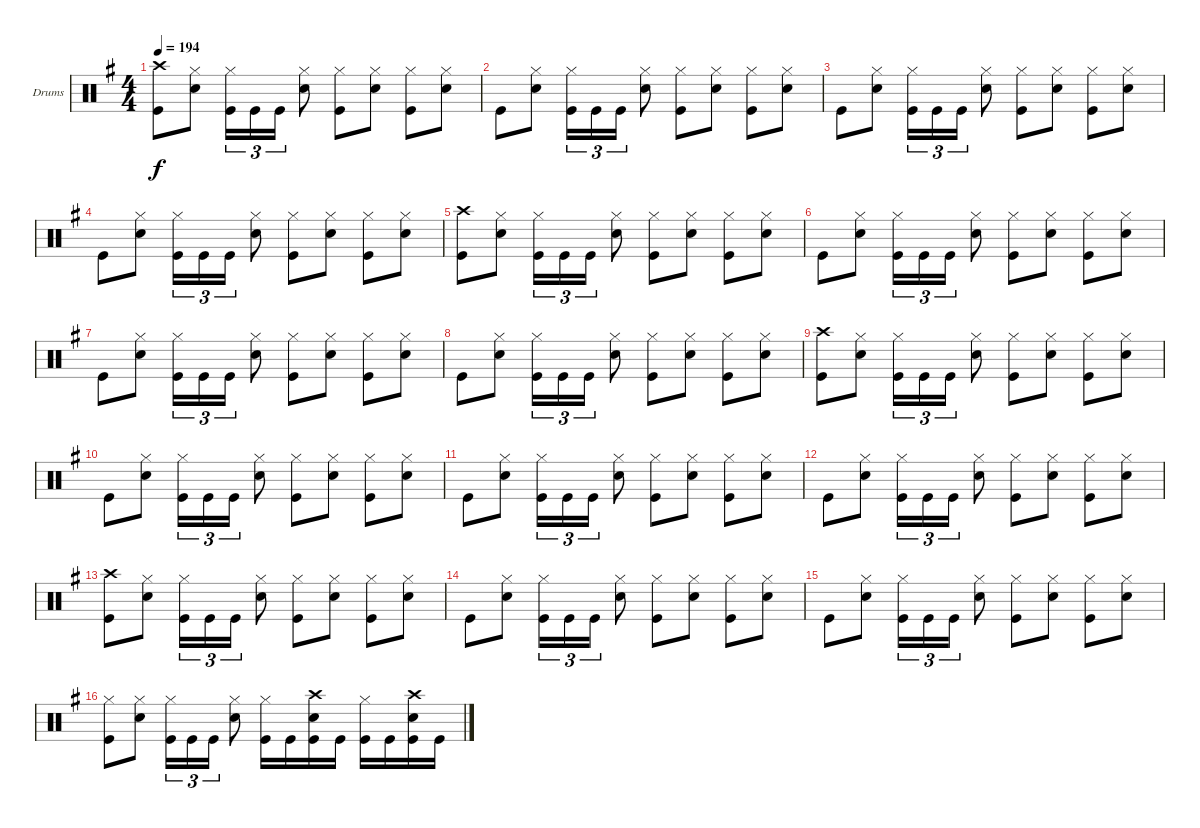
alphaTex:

\bracketExtendMode groupsimilarinstruments
\firstSystemTrackNameOrientation horizontal
\otherSystemsTrackNameOrientation horizontal
\track ("Drumkit" "Drums") {instrument percussion}
\staff {score}
\articulation defaults
\ts (4 4)
\tempo 194
\clef neutral
\scale
1.07314
\ks g
("Crash high (hit)" "Kick (hit)").8{dy f} ("Hi-Hat (closed)" "Snare (hit) 2").8 ("Hi-Hat (closed)" "Kick (hit)").16{tu (3 2)} "Kick (hit)".16{tu (3 2)} "Kick (hit)".16{tu (3 2)} ("Hi-Hat (closed)" "Snare (hit) 2").8 ("Hi-Hat (closed)" "Kick (hit)").8 ("Hi-Hat (closed)" "Snare (hit) 2").8 ("Hi-Hat (closed)" "Kick (hit)").8 ("Hi-Hat (closed)" "Snare (hit) 2").8 |
\scale
0.92686 "Kick (hit)".8 ("Hi-Hat (closed)" "Snare (hit) 2").8 ("Hi-Hat (closed)" "Kick (hit)").16{tu (3 2)} "Kick (hit)".16{tu (3 2)} "Kick (hit)".16{tu (3 2)} ("Hi-Hat (closed)" "Snare (hit) 2").8 ("Hi-Hat (closed)" "Kick (hit)").8 ("Hi-Hat (closed)" "Snare (hit) 2").8 ("Hi-Hat (closed)" "Kick (hit)").8 ("Hi-Hat (closed)" "Snare (hit) 2").8 |
\scale
1.04288 "Kick (hit)".8 ("Hi-Hat (closed)" "Snare (hit) 2").8 ("Hi-Hat (closed)" "Kick (hit)").16{tu (3 2)} "Kick (hit)".16{tu (3 2)} "Kick (hit)".16{tu (3 2)} ("Hi-Hat (closed)" "Snare (hit) 2").8 ("Hi-Hat (closed)" "Kick (hit)").8 ("Hi-Hat (closed)" "Snare (hit) 2").8 ("Hi-Hat (closed)" "Kick (hit)").8 ("Hi-Hat (closed)" "Snare (hit) 2").8 |
\scale
0.957125 "Kick (hit)".8 ("Hi-Hat (closed)" "Snare (hit) 2").8 ("Hi-Hat (closed)" "Kick (hit)").16{tu (3 2)} "Kick (hit)".16{tu (3 2)} "Kick (hit)".16{tu (3 2)} ("Hi-Hat (closed)" "Snare (hit) 2").8 ("Hi-Hat (closed)" "Kick (hit)").8 ("Hi-Hat (closed)" "Snare (hit) 2").8 ("Hi-Hat (closed)" "Kick (hit)").8 ("Hi-Hat (closed)" "Snare (hit) 2").8 |
\scale
1.04288 ("Crash high (hit)" "Kick (hit)").8 ("Hi-Hat (closed)" "Snare (hit) 2").8 ("Hi-Hat (closed)" "Kick (hit)").16{tu (3 2)} "Kick (hit)".16{tu (3 2)} "Kick (hit)".16{tu (3 2)} ("Hi-Hat (closed)" "Snare (hit) 2").8 ("Hi-Hat (closed)" "Kick (hit)").8 ("Hi-Hat (closed)" "Snare (hit) 2").8 ("Hi-Hat (closed)" "Kick (hit)").8 ("Hi-Hat (closed)" "Snare (hit) 2").8 |
\scale
0.957125 "Kick (hit)".8 ("Hi-Hat (closed)" "Snare (hit) 2").8 ("Hi-Hat (closed)" "Kick (hit)").16{tu (3 2)} "Kick (hit)".16{tu (3 2)} "Kick (hit)".16{tu (3 2)} ("Hi-Hat (closed)" "Snare (hit) 2").8 ("Hi-Hat (closed)" "Kick (hit)").8 ("Hi-Hat (closed)" "Snare (hit) 2").8 ("Hi-Hat (closed)" "Kick (hit)").8 ("Hi-Hat (closed)" "Snare (hit) 2").8 |
\scale
1.04288 "Kick (hit)".8 ("Hi-Hat (closed)" "Snare (hit) 2").8 ("Hi-Hat (closed)" "Kick (hit)").16{tu (3 2)} "Kick (hit)".16{tu (3 2)} "Kick (hit)".16{tu (3 2)} ("Hi-Hat (closed)" "Snare (hit) 2").8 ("Hi-Hat (closed)" "Kick (hit)").8 ("Hi-Hat (closed)" "Snare (hit) 2").8 ("Hi-Hat (closed)" "Kick (hit)").8 ("Hi-Hat (closed)" "Snare (hit) 2").8 |
\scale
0.957125 "Kick (hit)".8 ("Hi-Hat (closed)" "Snare (hit) 2").8 ("Hi-Hat (closed)" "Kick (hit)").16{tu (3 2)} "Kick (hit)".16{tu (3 2)} "Kick (hit)".16{tu (3 2)} ("Hi-Hat (closed)" "Snare (hit) 2").8 ("Hi-Hat (closed)" "Kick (hit)").8 ("Hi-Hat (closed)" "Snare (hit) 2").8 ("Hi-Hat (closed)" "Kick (hit)").8 ("Hi-Hat (closed)" "Snare (hit) 2").8 |
\scale
1.04288 ("Crash high (hit)" "Kick (hit)").8 ("Hi-Hat (closed)" "Snare (hit) 2").8 ("Hi-Hat (closed)" "Kick (hit)").16{tu (3 2)} "Kick (hit)".16{tu (3 2)} "Kick (hit)".16{tu (3 2)} ("Hi-Hat (closed)" "Snare (hit) 2").8 ("Hi-Hat (closed)" "Kick (hit)").8 ("Hi-Hat (closed)" "Snare (hit) 2").8 ("Hi-Hat (closed)" "Kick (hit)").8 ("Hi-Hat (closed)" "Snare (hit) 2").8 |
\scale
0.957125 "Kick (hit)".8 ("Hi-Hat (closed)" "Snare (hit) 2").8 ("Hi-Hat (closed)" "Kick (hit)").16{tu (3 2)} "Kick (hit)".16{tu (3 2)} "Kick (hit)".16{tu (3 2)} ("Hi-Hat (closed)" "Snare (hit) 2").8 ("Hi-Hat (closed)" "Kick (hit)").8 ("Hi-Hat (closed)" "Snare (hit) 2").8 ("Hi-Hat (closed)" "Kick (hit)").8 ("Hi-Hat (closed)" "Snare (hit) 2").8 |
\scale
1.04288 "Kick (hit)".8 ("Hi-Hat (closed)" "Snare (hit) 2").8 ("Hi-Hat (closed)" "Kick (hit)").16{tu (3 2)} "Kick (hit)".16{tu (3 2)} "Kick (hit)".16{tu (3 2)} ("Hi-Hat (closed)" "Snare (hit) 2").8 ("Hi-Hat (closed)" "Kick (hit)").8 ("Hi-Hat (closed)" "Snare (hit) 2").8 ("Hi-Hat (closed)" "Kick (hit)").8 ("Hi-Hat (closed)" "Snare (hit) 2").8 |
\scale
0.957125 "Kick (hit)".8 ("Hi-Hat (closed)" "Snare (hit) 2").8 ("Hi-Hat (closed)" "Kick (hit)").16{tu (3 2)} "Kick (hit)".16{tu (3 2)} "Kick (hit)".16{tu (3 2)} ("Hi-Hat (closed)" "Snare (hit) 2").8 ("Hi-Hat (closed)" "Kick (hit)").8 ("Hi-Hat (closed)" "Snare (hit) 2").8 ("Hi-Hat (closed)" "Kick (hit)").8 ("Hi-Hat (closed)" "Snare (hit) 2").8 |
\scale
1.04288 ("Crash high (hit)" "Kick (hit)").8 ("Hi-Hat (closed)" "Snare (hit) 2").8 ("Hi-Hat (closed)" "Kick (hit)").16{tu (3 2)} "Kick (hit)".16{tu (3 2)} "Kick (hit)".16{tu (3 2)} ("Hi-Hat (closed)" "Snare (hit) 2").8 ("Hi-Hat (closed)" "Kick (hit)").8 ("Hi-Hat (closed)" "Snare (hit) 2").8 ("Hi-Hat (closed)" "Kick (hit)").8 ("Hi-Hat (closed)" "Snare (hit) 2").8 |
\scale
0.957125 "Kick (hit)".8 ("Hi-Hat (closed)" "Snare (hit) 2").8 ("Hi-Hat (closed)" "Kick (hit)").16{tu (3 2)} "Kick (hit)".16{tu (3 2)} "Kick (hit)".16{tu (3 2)} ("Hi-Hat (closed)" "Snare (hit) 2").8 ("Hi-Hat (closed)" "Kick (hit)").8 ("Hi-Hat (closed)" "Snare (hit) 2").8 ("Hi-Hat (closed)" "Kick (hit)").8 ("Hi-Hat (closed)" "Snare (hit) 2").8 |
\scale
1.04288 "Kick (hit)".8 ("Hi-Hat (closed)" "Snare (hit) 2").8 ("Hi-Hat (closed)" "Kick (hit)").16{tu (3 2)} "Kick (hit)".16{tu (3 2)} "Kick (hit)".16{tu (3 2)} ("Hi-Hat (closed)" "Snare (hit) 2").8 ("Hi-Hat (closed)" "Kick (hit)").8 ("Hi-Hat (closed)" "Snare (hit) 2").8 ("Hi-Hat (closed)" "Kick (hit)").8 ("Hi-Hat (closed)" "Snare (hit) 2").8 |
\scale
0.957125 ("Hi-Hat (closed)" "Kick (hit)").8 ("Hi-Hat (closed)" "Snare (hit) 2").8 ("Hi-Hat (closed)" "Kick (hit)").16{tu (3 2)} "Kick (hit)".16{tu (3 2)} "Kick (hit)".16{tu (3 2)} ("Hi-Hat (closed)" "Snare (hit) 2").8 ("Hi-Hat (closed)" "Kick (hit)").16 "Kick (hit)".16 ("Crash high (hit)" "Snare (hit) 2" "Kick (hit)").16 "Kick (hit)".16 ("Hi-Hat (closed)" "Kick (hit)").16 "Kick (hit)".16 ("Crash high (hit)" "Snare (hit) 2" "Kick (hit)").16 "Kick (hit)".16
